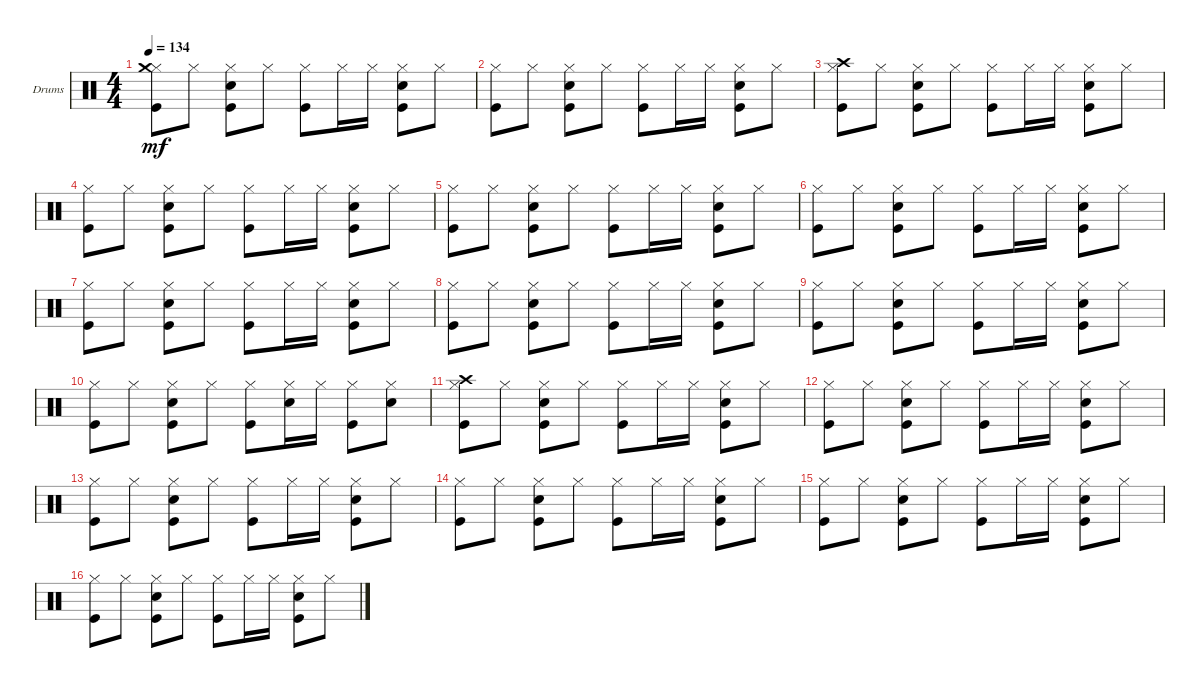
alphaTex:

\bracketExtendMode groupsimilarinstruments
\firstSystemTrackNameOrientation horizontal
\otherSystemsTrackNameOrientation horizontal
\track ("DRUMSET" "Drums") {instrument percussion}
\staff {score}
\articulation defaults
\ts (4 4)
\tempo 134
\clef neutral
\ks c
("Kick (hit)" "Hi-Hat (closed)" "Crash medium (hit)").8{dy mf} "Hi-Hat (closed)".8 ("Kick (hit)" "Snare (hit) 2" "Hi-Hat (closed)").8 "Hi-Hat (closed)".8 ("Kick (hit)" "Hi-Hat (closed)").8 "Hi-Hat (closed)".16 "Hi-Hat (closed)".16 ("Kick (hit)" "Snare (hit) 2" "Hi-Hat (closed)").8 "Hi-Hat (closed)".8 |
("Kick (hit)" "Hi-Hat (closed)").8 "Hi-Hat (closed)".8 ("Kick (hit)" "Snare (hit) 2" "Hi-Hat (closed)").8 "Hi-Hat (closed)".8 ("Kick (hit)" "Hi-Hat (closed)").8 "Hi-Hat (closed)".16 "Hi-Hat (closed)".16 ("Kick (hit)" "Snare (hit) 2" "Hi-Hat (closed)").8 "Hi-Hat (closed)".8 |
("Kick (hit)" "Hi-Hat (closed)" "Crash high (hit)").8 "Hi-Hat (closed)".8 ("Kick (hit)" "Snare (hit) 2" "Hi-Hat (closed)").8 "Hi-Hat (closed)".8 ("Kick (hit)" "Hi-Hat (closed)").8 "Hi-Hat (closed)".16 "Hi-Hat (closed)".16 ("Kick (hit)" "Snare (hit) 2" "Hi-Hat (closed)").8 "Hi-Hat (closed)".8 |
("Kick (hit)" "Hi-Hat (closed)").8 "Hi-Hat (closed)".8 ("Kick (hit)" "Snare (hit) 2" "Hi-Hat (closed)").8 "Hi-Hat (closed)".8 ("Kick (hit)" "Hi-Hat (closed)").8 "Hi-Hat (closed)".16 "Hi-Hat (closed)".16 ("Kick (hit)" "Snare (hit) 2" "Hi-Hat (closed)").8 "Hi-Hat (closed)".8 |
("Kick (hit)" "Hi-Hat (closed)").8 "Hi-Hat (closed)".8 ("Kick (hit)" "Snare (hit) 2" "Hi-Hat (closed)").8 "Hi-Hat (closed)".8 ("Kick (hit)" "Hi-Hat (closed)").8 "Hi-Hat (closed)".16 "Hi-Hat (closed)".16 ("Kick (hit)" "Snare (hit) 2" "Hi-Hat (closed)").8 "Hi-Hat (closed)".8 |
("Kick (hit)" "Hi-Hat (closed)").8 "Hi-Hat (closed)".8 ("Kick (hit)" "Snare (hit) 2" "Hi-Hat (closed)").8 "Hi-Hat (closed)".8 ("Kick (hit)" "Hi-Hat (closed)").8 "Hi-Hat (closed)".16 "Hi-Hat (closed)".16 ("Kick (hit)" "Snare (hit) 2" "Hi-Hat (closed)").8 "Hi-Hat (closed)".8 |
("Kick (hit)" "Hi-Hat (closed)").8 "Hi-Hat (closed)".8 ("Kick (hit)" "Snare (hit) 2" "Hi-Hat (closed)").8 "Hi-Hat (closed)".8 ("Kick (hit)" "Hi-Hat (closed)").8 "Hi-Hat (closed)".16 "Hi-Hat (closed)".16 ("Kick (hit)" "Snare (hit) 2" "Hi-Hat (closed)").8 "Hi-Hat (closed)".8 |
("Kick (hit)" "Hi-Hat (closed)").8 "Hi-Hat (closed)".8 ("Kick (hit)" "Snare (hit) 2" "Hi-Hat (closed)").8 "Hi-Hat (closed)".8 ("Kick (hit)" "Hi-Hat (closed)").8 "Hi-Hat (closed)".16 "Hi-Hat (closed)".16 ("Kick (hit)" "Snare (hit) 2" "Hi-Hat (closed)").8 "Hi-Hat (closed)".8 |
("Kick (hit)" "Hi-Hat (closed)").8 "Hi-Hat (closed)".8 ("Kick (hit)" "Snare (hit) 2" "Hi-Hat (closed)").8 "Hi-Hat (closed)".8 ("Kick (hit)" "Hi-Hat (closed)").8 "Hi-Hat (closed)".16 "Hi-Hat (closed)".16 ("Kick (hit)" "Snare (hit) 2" "Hi-Hat (closed)").8 "Hi-Hat (closed)".8 |
("Kick (hit)" "Hi-Hat (closed)").8 "Hi-Hat (closed)".8 ("Kick (hit)" "Snare (hit) 2" "Hi-Hat (closed)").8 "Hi-Hat (closed)".8 ("Kick (hit)" "Hi-Hat (closed)").8 ("Snare (hit) 2" "Hi-Hat (closed)").16 "Hi-Hat (closed)".16 ("Kick (hit)" "Hi-Hat (closed)").8 ("Snare (hit) 2" "Hi-Hat (closed)").8 |
("Kick (hit)" "Hi-Hat (closed)" "Crash high (hit)").8 "Hi-Hat (closed)".8 ("Kick (hit)" "Snare (hit) 2" "Hi-Hat (closed)").8 "Hi-Hat (closed)".8 ("Kick (hit)" "Hi-Hat (closed)").8 "Hi-Hat (closed)".16 "Hi-Hat (closed)".16 ("Kick (hit)" "Snare (hit) 2" "Hi-Hat (closed)").8 "Hi-Hat (closed)".8 |
("Kick (hit)" "Hi-Hat (closed)").8 "Hi-Hat (closed)".8 ("Kick (hit)" "Snare (hit) 2" "Hi-Hat (closed)").8 "Hi-Hat (closed)".8 ("Kick (hit)" "Hi-Hat (closed)").8 "Hi-Hat (closed)".16 "Hi-Hat (closed)".16 ("Kick (hit)" "Snare (hit) 2" "Hi-Hat (closed)").8 "Hi-Hat (closed)".8 |
("Kick (hit)" "Hi-Hat (closed)").8 "Hi-Hat (closed)".8 ("Kick (hit)" "Snare (hit) 2" "Hi-Hat (closed)").8 "Hi-Hat (closed)".8 ("Kick (hit)" "Hi-Hat (closed)").8 "Hi-Hat (closed)".16 "Hi-Hat (closed)".16 ("Kick (hit)" "Snare (hit) 2" "Hi-Hat (closed)").8 "Hi-Hat (closed)".8 |
("Kick (hit)" "Hi-Hat (closed)").8 "Hi-Hat (closed)".8 ("Kick (hit)" "Snare (hit) 2" "Hi-Hat (closed)").8 "Hi-Hat (closed)".8 ("Kick (hit)" "Hi-Hat (closed)").8 "Hi-Hat (closed)".16 "Hi-Hat (closed)".16 ("Kick (hit)" "Snare (hit) 2" "Hi-Hat (closed)").8 "Hi-Hat (closed)".8 |
("Kick (hit)" "Hi-Hat (closed)").8 "Hi-Hat (closed)".8 ("Kick (hit)" "Snare (hit) 2" "Hi-Hat (closed)").8 "Hi-Hat (closed)".8 ("Kick (hit)" "Hi-Hat (closed)").8 "Hi-Hat (closed)".16 "Hi-Hat (closed)".16 ("Kick (hit)" "Snare (hit) 2" "Hi-Hat (closed)").8 "Hi-Hat (closed)".8 |
("Kick (hit)" "Hi-Hat (closed)").8 "Hi-Hat (closed)".8 ("Kick (hit)" "Snare (hit) 2" "Hi-Hat (closed)").8 "Hi-Hat (closed)".8 ("Kick (hit)" "Hi-Hat (closed)").8 "Hi-Hat (closed)".16 "Hi-Hat (closed)".16 ("Kick (hit)" "Snare (hit) 2" "Hi-Hat (closed)").8 "Hi-Hat (closed)".8
